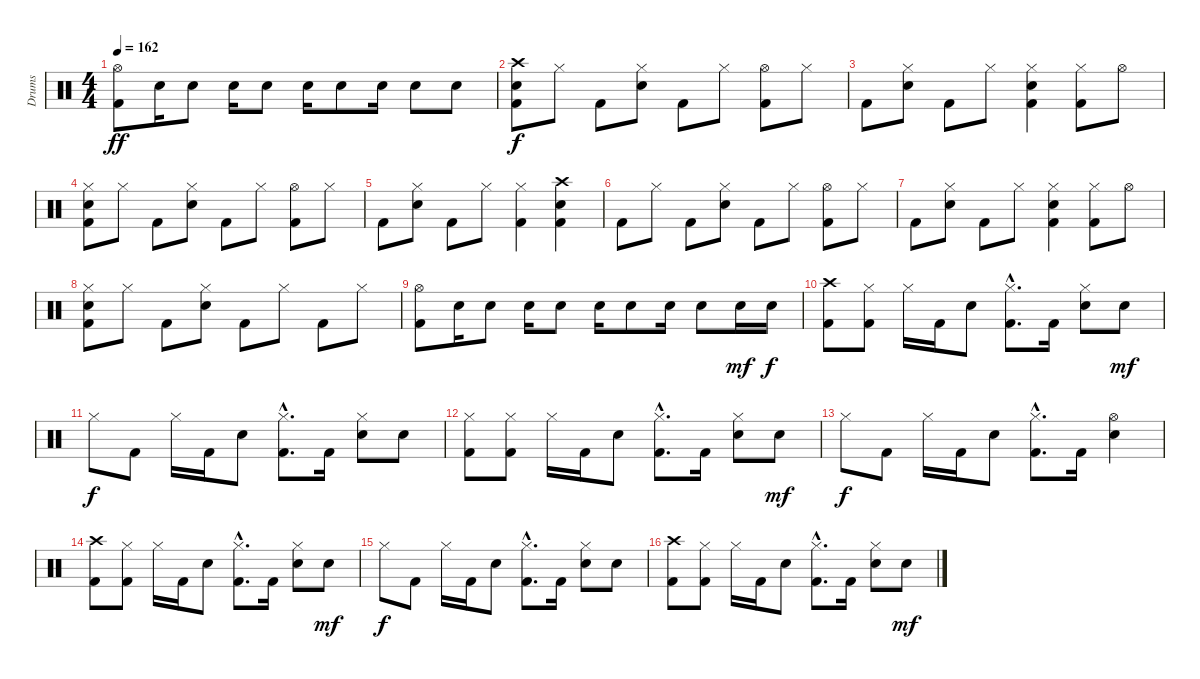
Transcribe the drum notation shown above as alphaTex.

\track ("Drums" "Drums") {instrument percussion}
\staff {score}
\articulation defaults
\ts (4 4)
\tempo 162
\clef neutral
\ks c
("Hi-Hat (open)" "Kick (hit) 2").8{dy ff} "Electric Snare (hit)".16 "Electric Snare (hit)".8 "Electric Snare (hit)".16 "Electric Snare (hit)".8 "Electric Snare (hit)".16 "Electric Snare (hit)".8 "Electric Snare (hit)".16 "Electric Snare (hit)".8 "Electric Snare (hit)".8 |
("Crash high (hit)" "Electric Snare (hit)" "Kick (hit) 2").8{dy f} "Hi-Hat (closed)".8 "Kick (hit) 2".8 ("Hi-Hat (closed)" "Electric Snare (hit)").8 "Kick (hit) 2".8 "Hi-Hat (closed)".8 ("Hi-Hat (open)" "Kick (hit) 2").8 "Hi-Hat (closed)".8 |
"Kick (hit) 2".8 ("Hi-Hat (closed)" "Electric Snare (hit)").8 "Kick (hit) 2".8 "Hi-Hat (closed)".8 ("Hi-Hat (closed)" "Electric Snare (hit)" "Kick (hit) 2").4 ("Hi-Hat (closed)" "Kick (hit) 2").8 "Hi-Hat (open)".8 |
("Hi-Hat (closed)" "Electric Snare (hit)" "Kick (hit) 2").8 "Hi-Hat (closed)".8 "Kick (hit) 2".8 ("Hi-Hat (closed)" "Electric Snare (hit)").8 "Kick (hit) 2".8 "Hi-Hat (closed)".8 ("Hi-Hat (open)" "Kick (hit) 2").8 "Hi-Hat (closed)".8 |
"Kick (hit) 2".8 ("Hi-Hat (closed)" "Electric Snare (hit)").8 "Kick (hit) 2".8 "Hi-Hat (closed)".8 ("Hi-Hat (closed)" "Kick (hit) 2").4 ("Crash high (hit)" "Electric Snare (hit)" "Kick (hit) 2").4 |
"Kick (hit) 2".8 "Hi-Hat (closed)".8 "Kick (hit) 2".8 ("Hi-Hat (closed)" "Electric Snare (hit)").8 "Kick (hit) 2".8 "Hi-Hat (closed)".8 ("Hi-Hat (open)" "Kick (hit) 2").8 "Hi-Hat (closed)".8 |
"Kick (hit) 2".8 ("Hi-Hat (closed)" "Electric Snare (hit)").8 "Kick (hit) 2".8 "Hi-Hat (closed)".8 ("Hi-Hat (closed)" "Electric Snare (hit)" "Kick (hit) 2").4 ("Hi-Hat (closed)" "Kick (hit) 2").8 "Hi-Hat (open)".8 |
("Hi-Hat (closed)" "Electric Snare (hit)" "Kick (hit) 2").8 "Hi-Hat (closed)".8 "Kick (hit) 2".8 ("Hi-Hat (closed)" "Electric Snare (hit)").8 "Kick (hit) 2".8 "Hi-Hat (closed)".8 "Kick (hit) 2".8 "Hi-Hat (closed)".8 |
("Hi-Hat (open)" "Kick (hit) 2").8 "Electric Snare (hit)".16 "Electric Snare (hit)".8 "Electric Snare (hit)".16 "Electric Snare (hit)".8 "Electric Snare (hit)".16 "Electric Snare (hit)".8 "Electric Snare (hit)".16 "Electric Snare (hit)".8 "Electric Snare (hit)".16{dy mf} "Electric Snare (hit)".16{dy f} |
("Crash high (hit)" "Kick (hit) 2").8 ("Hi-Hat (closed)" "Kick (hit) 2").8 "Hi-Hat (closed)".16 "Kick (hit) 2".16 "Electric Snare (hit)".8 ("Hi-Hat (closed)"{hac} "Kick (hit) 2"{hac}).8{d} "Kick (hit) 2".16 ("Hi-Hat (closed)" "Electric Snare (hit)").8 "Electric Snare (hit)".8{dy mf} |
"Hi-Hat (closed)".8{dy f} "Kick (hit) 2".8 "Hi-Hat (closed)".16 "Kick (hit) 2".16 "Electric Snare (hit)".8 ("Hi-Hat (closed)"{hac} "Kick (hit) 2"{hac}).8{d} "Kick (hit) 2".16 ("Hi-Hat (closed)" "Electric Snare (hit)").8 "Electric Snare (hit)".8 |
("Hi-Hat (closed)" "Kick (hit) 2").8 ("Hi-Hat (closed)" "Kick (hit) 2").8 "Hi-Hat (closed)".16 "Kick (hit) 2".16 "Electric Snare (hit)".8 ("Hi-Hat (closed)"{hac} "Kick (hit) 2"{hac}).8{d} "Kick (hit) 2".16 ("Hi-Hat (closed)" "Electric Snare (hit)").8 "Electric Snare (hit)".8{dy mf} |
"Hi-Hat (closed)".8{dy f} "Kick (hit) 2".8 "Hi-Hat (closed)".16 "Kick (hit) 2".16 "Electric Snare (hit)".8 ("Hi-Hat (closed)"{hac} "Kick (hit) 2"{hac}).8{d} "Kick (hit) 2".16 ("Hi-Hat (open)" "Electric Snare (hit)").4 |
("Crash high (hit)" "Kick (hit) 2").8 ("Hi-Hat (closed)" "Kick (hit) 2").8 "Hi-Hat (closed)".16 "Kick (hit) 2".16 "Electric Snare (hit)".8 ("Hi-Hat (closed)"{hac} "Kick (hit) 2"{hac}).8{d} "Kick (hit) 2".16 ("Hi-Hat (closed)" "Electric Snare (hit)").8 "Electric Snare (hit)".8{dy mf} |
"Hi-Hat (closed)".8{dy f} "Kick (hit) 2".8 "Hi-Hat (closed)".16 "Kick (hit) 2".16 "Electric Snare (hit)".8 ("Hi-Hat (closed)"{hac} "Kick (hit) 2"{hac}).8{d} "Kick (hit) 2".16 ("Hi-Hat (closed)" "Electric Snare (hit)").8 "Electric Snare (hit)".8 |
("Crash high (hit)" "Kick (hit) 2").8 ("Hi-Hat (closed)" "Kick (hit) 2").8 "Hi-Hat (closed)".16 "Kick (hit) 2".16 "Electric Snare (hit)".8 ("Hi-Hat (closed)"{hac} "Kick (hit) 2"{hac}).8{d} "Kick (hit) 2".16 ("Hi-Hat (closed)" "Electric Snare (hit)").8 "Electric Snare (hit)".8{dy mf}
